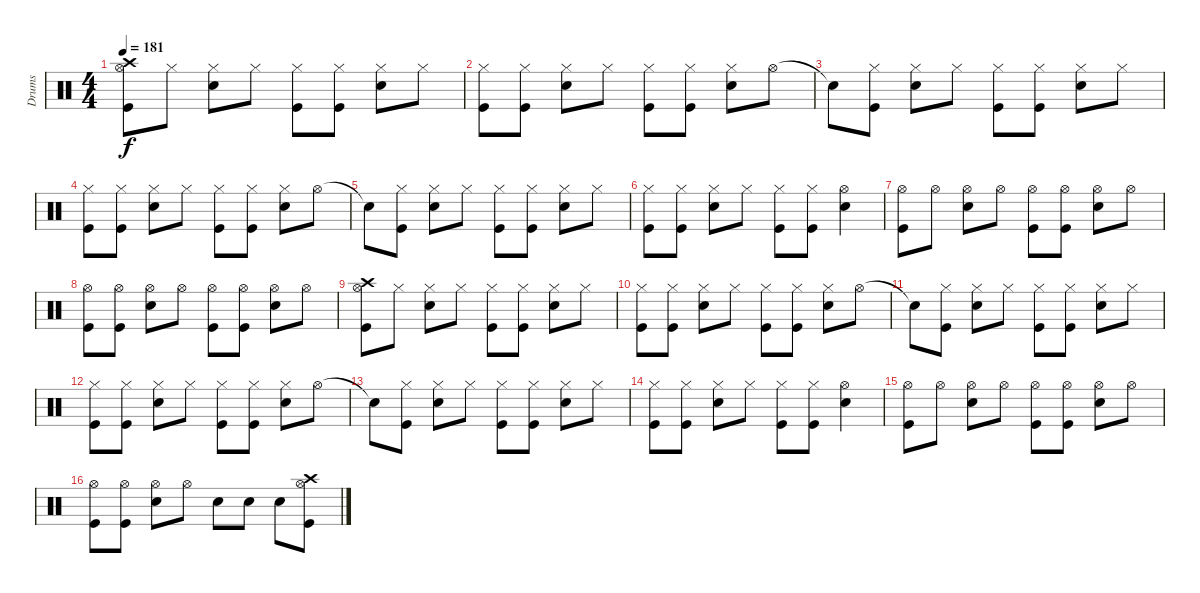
\track ("Drums" "Drums") {instrument percussion}
\staff {score}
\articulation defaults
\ts (4 4)
\tempo 181
\clef neutral
\ks c
("Crash high (hit)" "Hi-Hat (open)" "Kick (hit)").8{dy f} "Hi-Hat (closed)".8 ("Hi-Hat (closed)" "Snare (hit) 2").8 "Hi-Hat (closed)".8 ("Hi-Hat (closed)" "Kick (hit)").8 ("Hi-Hat (closed)" "Kick (hit)").8 ("Hi-Hat (closed)" "Snare (hit) 2").8 "Hi-Hat (closed)".8 |
("Hi-Hat (closed)" "Kick (hit)").8 ("Hi-Hat (closed)" "Kick (hit)").8 ("Hi-Hat (closed)" "Snare (hit) 2").8 "Hi-Hat (closed)".8 ("Hi-Hat (closed)" "Kick (hit)").8 ("Hi-Hat (closed)" "Kick (hit)").8 ("Hi-Hat (closed)" "Snare (hit) 2").8 "Hi-Hat (open)".8 |
"Snare (hit)"{t}.8 ("Hi-Hat (closed)" "Kick (hit)").8 ("Hi-Hat (closed)" "Snare (hit) 2").8 "Hi-Hat (closed)".8 ("Hi-Hat (closed)" "Kick (hit)").8 ("Hi-Hat (closed)" "Kick (hit)").8 ("Hi-Hat (closed)" "Snare (hit) 2").8 "Hi-Hat (closed)".8 |
("Hi-Hat (closed)" "Kick (hit)").8 ("Hi-Hat (closed)" "Kick (hit)").8 ("Hi-Hat (closed)" "Snare (hit) 2").8 "Hi-Hat (closed)".8 ("Hi-Hat (closed)" "Kick (hit)").8 ("Hi-Hat (closed)" "Kick (hit)").8 ("Hi-Hat (closed)" "Snare (hit) 2").8 "Hi-Hat (open)".8 |
"Snare (hit)"{t}.8 ("Hi-Hat (closed)" "Kick (hit)").8 ("Hi-Hat (closed)" "Snare (hit) 2").8 "Hi-Hat (closed)".8 ("Hi-Hat (closed)" "Kick (hit)").8 ("Hi-Hat (closed)" "Kick (hit)").8 ("Hi-Hat (closed)" "Snare (hit) 2").8 "Hi-Hat (closed)".8 |
("Hi-Hat (closed)" "Kick (hit)").8 ("Hi-Hat (closed)" "Kick (hit)").8 ("Hi-Hat (closed)" "Snare (hit) 2").8 "Hi-Hat (closed)".8 ("Hi-Hat (closed)" "Kick (hit)").8 ("Hi-Hat (closed)" "Kick (hit)").8 ("Hi-Hat (open)" "Snare (hit) 2").4 |
("Hi-Hat (open)" "Kick (hit)").8 "Hi-Hat (open)".8 ("Hi-Hat (open)" "Snare (hit) 2").8 "Hi-Hat (open)".8 ("Hi-Hat (open)" "Kick (hit)").8 ("Hi-Hat (open)" "Kick (hit)").8 ("Hi-Hat (open)" "Snare (hit) 2").8 "Hi-Hat (open)".8 |
("Hi-Hat (open)" "Kick (hit)").8 ("Hi-Hat (open)" "Kick (hit)").8 ("Hi-Hat (open)" "Snare (hit) 2").8 "Hi-Hat (open)".8 ("Hi-Hat (open)" "Kick (hit)").8 ("Hi-Hat (open)" "Kick (hit)").8 ("Hi-Hat (open)" "Snare (hit) 2").8 "Hi-Hat (open)".8 |
("Crash high (hit)" "Hi-Hat (open)" "Kick (hit)").8 "Hi-Hat (closed)".8 ("Hi-Hat (closed)" "Snare (hit) 2").8 "Hi-Hat (closed)".8 ("Hi-Hat (closed)" "Kick (hit)").8 ("Hi-Hat (closed)" "Kick (hit)").8 ("Hi-Hat (closed)" "Snare (hit) 2").8 "Hi-Hat (closed)".8 |
("Hi-Hat (closed)" "Kick (hit)").8 ("Hi-Hat (closed)" "Kick (hit)").8 ("Hi-Hat (closed)" "Snare (hit) 2").8 "Hi-Hat (closed)".8 ("Hi-Hat (closed)" "Kick (hit)").8 ("Hi-Hat (closed)" "Kick (hit)").8 ("Hi-Hat (closed)" "Snare (hit) 2").8 "Hi-Hat (open)".8 |
"Snare (hit)"{t}.8 ("Hi-Hat (closed)" "Kick (hit)").8 ("Hi-Hat (closed)" "Snare (hit) 2").8 "Hi-Hat (closed)".8 ("Hi-Hat (closed)" "Kick (hit)").8 ("Hi-Hat (closed)" "Kick (hit)").8 ("Hi-Hat (closed)" "Snare (hit) 2").8 "Hi-Hat (closed)".8 |
("Hi-Hat (closed)" "Kick (hit)").8 ("Hi-Hat (closed)" "Kick (hit)").8 ("Hi-Hat (closed)" "Snare (hit) 2").8 "Hi-Hat (closed)".8 ("Hi-Hat (closed)" "Kick (hit)").8 ("Hi-Hat (closed)" "Kick (hit)").8 ("Hi-Hat (closed)" "Snare (hit) 2").8 "Hi-Hat (open)".8 |
"Snare (hit)"{t}.8 ("Hi-Hat (closed)" "Kick (hit)").8 ("Hi-Hat (closed)" "Snare (hit) 2").8 "Hi-Hat (closed)".8 ("Hi-Hat (closed)" "Kick (hit)").8 ("Hi-Hat (closed)" "Kick (hit)").8 ("Hi-Hat (closed)" "Snare (hit) 2").8 "Hi-Hat (closed)".8 |
("Hi-Hat (closed)" "Kick (hit)").8 ("Hi-Hat (closed)" "Kick (hit)").8 ("Hi-Hat (closed)" "Snare (hit) 2").8 "Hi-Hat (closed)".8 ("Hi-Hat (closed)" "Kick (hit)").8 ("Hi-Hat (closed)" "Kick (hit)").8 ("Hi-Hat (open)" "Snare (hit) 2").4 |
("Hi-Hat (open)" "Kick (hit)").8 "Hi-Hat (open)".8 ("Hi-Hat (open)" "Snare (hit) 2").8 "Hi-Hat (open)".8 ("Hi-Hat (open)" "Kick (hit)").8 ("Hi-Hat (open)" "Kick (hit)").8 ("Hi-Hat (open)" "Snare (hit) 2").8 "Hi-Hat (open)".8 |
("Hi-Hat (open)" "Kick (hit)").8 ("Hi-Hat (open)" "Kick (hit)").8 ("Hi-Hat (open)" "Snare (hit) 2").8 "Hi-Hat (open)".8 "Snare (hit) 2".8 "Snare (hit) 2".8 "Snare (hit) 2".8 ("Crash high (hit)" "Hi-Hat (open)" "Kick (hit)").8
